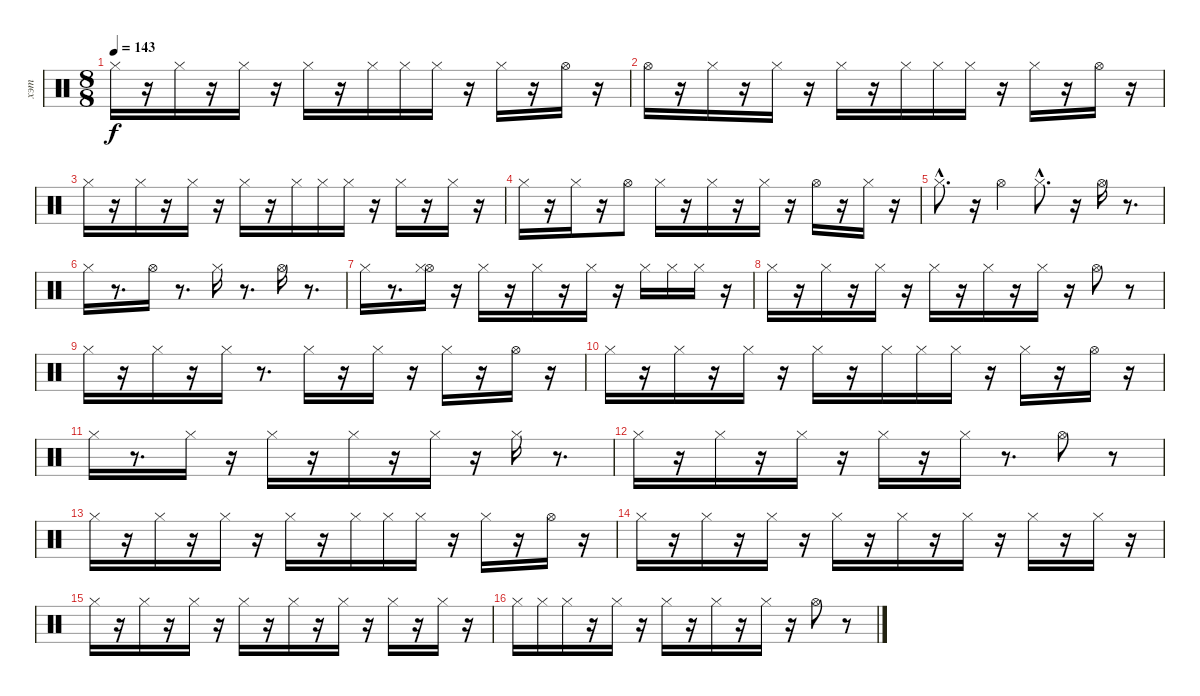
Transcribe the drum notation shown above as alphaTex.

\track ("хэт" "хэт") {instrument percussion}
\staff {score}
\articulation defaults
\ts (8 8)
\tempo 143
\clef neutral
\ks c "Hi-Hat (closed)".16{dy f}
r.16 "Hi-Hat (closed)".16 r.16 "Hi-Hat (closed)".16 r.16 "Hi-Hat (closed)".16 r.16 "Hi-Hat (closed)".16 "Hi-Hat (closed)".16 "Hi-Hat (closed)".16 r.16 "Hi-Hat (closed)".16 r.16 "Hi-Hat (open)".16 r.16 |
"Hi-Hat (open)".16 r.16 "Hi-Hat (closed)".16 r.16 "Hi-Hat (closed)".16 r.16 "Hi-Hat (closed)".16 r.16 "Hi-Hat (closed)".16 "Hi-Hat (closed)".16 "Hi-Hat (closed)".16 r.16 "Hi-Hat (closed)".16 r.16 "Hi-Hat (open)".16 r.16 |
"Hi-Hat (closed)".16 r.16 "Hi-Hat (closed)".16 r.16 "Hi-Hat (closed)".16 r.16 "Hi-Hat (closed)".16 r.16 "Hi-Hat (closed)".16 "Hi-Hat (closed)".16 "Hi-Hat (closed)".16 r.16 "Hi-Hat (closed)".16 r.16 "Hi-Hat (closed)".16 r.16 |
"Hi-Hat (closed)".16 r.16 "Hi-Hat (closed)".16 r.16 "Hi-Hat (open)".8 "Hi-Hat (closed)".16 r.16 "Hi-Hat (closed)".16 r.16 "Hi-Hat (closed)".16 r.16 "Hi-Hat (open)".16 r.16 "Hi-Hat (closed)".16 r.16 |
"Hi-Hat (closed)"{hac}.8{d} r.16 "Hi-Hat (open)".4 "Hi-Hat (closed)"{hac}.8{d} r.16 "Hi-Hat (open)".16 r.8{d} |
"Hi-Hat (closed)".16 r.8{d} "Hi-Hat (open)".16 r.8{d} "Hi-Hat (closed)".16 r.8{d} "Hi-Hat (open)".16 r.8{d} |
"Hi-Hat (closed)".16 r.8{d} ("Hi-Hat (open)" "Hi-Hat (closed)").16 r.16 "Hi-Hat (closed)".16 r.16 "Hi-Hat (closed)".16 r.16 "Hi-Hat (closed)".16 r.16 "Hi-Hat (closed)".16 "Hi-Hat (closed)".16 "Hi-Hat (closed)".16 r.16 |
"Hi-Hat (closed)".16 r.16 "Hi-Hat (closed)".16 r.16 "Hi-Hat (closed)".16 r.16 "Hi-Hat (closed)".16 r.16 "Hi-Hat (closed)".16 r.16 "Hi-Hat (closed)".16 r.16 "Hi-Hat (open)".8 r.8 |
"Hi-Hat (closed)".16 r.16 "Hi-Hat (closed)".16 r.16 "Hi-Hat (closed)".16 r.8{d} "Hi-Hat (closed)".16 r.16 "Hi-Hat (closed)".16 r.16 "Hi-Hat (closed)".16 r.16 "Hi-Hat (open)".16 r.16 |
"Hi-Hat (closed)".16 r.16 "Hi-Hat (closed)".16 r.16 "Hi-Hat (closed)".16 r.16 "Hi-Hat (closed)".16 r.16 "Hi-Hat (closed)".16 "Hi-Hat (closed)".16 "Hi-Hat (closed)".16 r.16 "Hi-Hat (closed)".16 r.16 "Hi-Hat (open)".16 r.16 |
"Hi-Hat (closed)".16 r.8{d} "Hi-Hat (closed)".16 r.16 "Hi-Hat (closed)".16 r.16 "Hi-Hat (closed)".16 r.16 "Hi-Hat (closed)".16 r.16 "Hi-Hat (closed)".16 r.8{d} |
"Hi-Hat (closed)".16 r.16 "Hi-Hat (closed)".16 r.16 "Hi-Hat (closed)".16 r.16 "Hi-Hat (closed)".16 r.16 "Hi-Hat (closed)".16 r.8{d} "Hi-Hat (open)".8 r.8 |
"Hi-Hat (closed)".16 r.16 "Hi-Hat (closed)".16 r.16 "Hi-Hat (closed)".16 r.16 "Hi-Hat (closed)".16 r.16 "Hi-Hat (closed)".16 "Hi-Hat (closed)".16 "Hi-Hat (closed)".16 r.16 "Hi-Hat (closed)".16 r.16 "Hi-Hat (open)".16 r.16 |
"Hi-Hat (closed)".16 r.16 "Hi-Hat (closed)".16 r.16 "Hi-Hat (closed)".16 r.16 "Hi-Hat (closed)".16 r.16 "Hi-Hat (closed)".16 r.16 "Hi-Hat (closed)".16 r.16 "Hi-Hat (closed)".16 r.16 "Hi-Hat (closed)".16 r.16 |
"Hi-Hat (closed)".16 r.16 "Hi-Hat (closed)".16 r.16 "Hi-Hat (closed)".16 r.16 "Hi-Hat (closed)".16 r.16 "Hi-Hat (closed)".16 r.16 "Hi-Hat (closed)".16 r.16 "Hi-Hat (closed)".16 r.16 "Hi-Hat (closed)".16 r.16 |
"Hi-Hat (closed)".16 "Hi-Hat (closed)".16 "Hi-Hat (closed)".16 r.16 "Hi-Hat (closed)".16 r.16 "Hi-Hat (closed)".16 r.16 "Hi-Hat (closed)".16 r.16 "Hi-Hat (closed)".16 r.16 "Hi-Hat (open)".8 r.8
